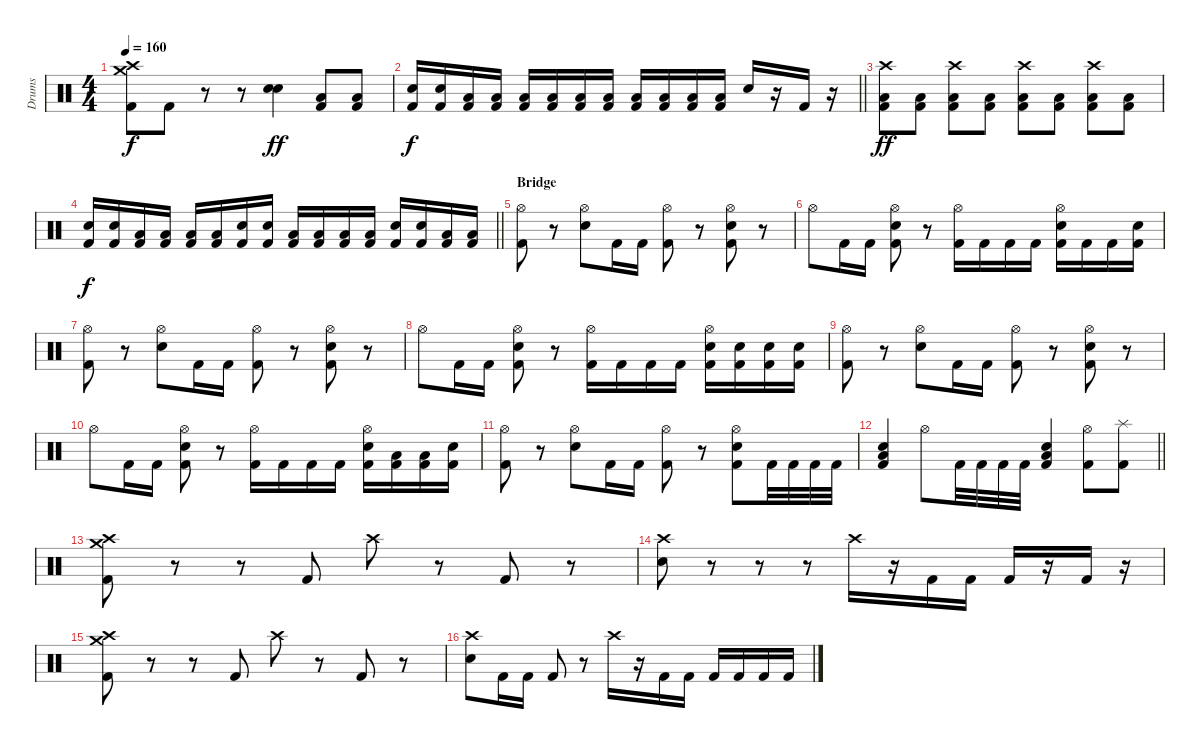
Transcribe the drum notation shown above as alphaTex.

\track ("Drums" "Drums") {instrument percussion}
\staff {score}
\articulation defaults
\ts (4 4)
\tempo 160
\clef neutral
\ks c
("Crash high (hit)" "Crash medium (hit)" "Kick (hit) 2").8{dy f} "Kick (hit) 2".8 r.8 r.8 ("Electric Snare (hit)" "Snare (hit) 2").4{dy ff} ("Low Floor Tom (hit)" "Kick (hit) 2").8 ("Low Floor Tom (hit)" "Kick (hit) 2").8 |
\barLineRight lightlight
("Electric Snare (hit)" "Kick (hit) 2").16{dy f} ("Electric Snare (hit)" "Kick (hit) 2").16 ("Low Floor Tom (hit)" "Kick (hit) 2").16 ("Low Floor Tom (hit)" "Kick (hit) 2").16 ("Low Floor Tom (hit)" "Kick (hit) 2").16 ("Low Floor Tom (hit)" "Kick (hit) 2").16 ("Low Tom (hit)" "Kick (hit) 2").16 ("Low Tom (hit)" "Kick (hit) 2").16 ("Low Floor Tom (hit)" "Kick (hit) 2").16 ("Low Floor Tom (hit)" "Kick (hit) 2").16 ("Low Floor Tom (hit)" "Kick (hit) 2").16 ("Low Floor Tom (hit)" "Kick (hit) 2").16 "Electric Snare (hit)".16 r.16 "Kick (hit) 2".16 r.16 |
\section ("" "")
("Crash high (hit)" "Low Floor Tom (hit)" "Kick (hit) 2").8{dy ff} ("Low Floor Tom (hit)" "Kick (hit) 2").8 ("Crash high (hit)" "Low Floor Tom (hit)" "Kick (hit) 2").8 ("Low Floor Tom (hit)" "Kick (hit) 2").8 ("Crash high (hit)" "Low Floor Tom (hit)" "Kick (hit) 2").8 ("Low Floor Tom (hit)" "Kick (hit) 2").8 ("Crash high (hit)" "Low Floor Tom (hit)" "Kick (hit) 2").8 ("Low Floor Tom (hit)" "Kick (hit) 2").8 |
\barLineRight lightlight
("Electric Snare (hit)" "Kick (hit) 2").16{dy f} ("Electric Snare (hit)" "Kick (hit) 2").16 ("Low Floor Tom (hit)" "Kick (hit) 2").16 ("Low Floor Tom (hit)" "Kick (hit) 2").16 ("Low Floor Tom (hit)" "Kick (hit) 2").16 ("Low Floor Tom (hit)" "Kick (hit) 2").16 ("Electric Snare (hit)" "Kick (hit) 2").16 ("Electric Snare (hit)" "Kick (hit) 2").16 ("Low Floor Tom (hit)" "Kick (hit) 2").16 ("Low Floor Tom (hit)" "Kick (hit) 2").16 ("Low Floor Tom (hit)" "Kick (hit) 2").16 ("Low Floor Tom (hit)" "Kick (hit) 2").16 ("Electric Snare (hit)" "Kick (hit) 2").16 ("Electric Snare (hit)" "Kick (hit) 2").16 ("Low Floor Tom (hit)" "Kick (hit) 2").16 ("Low Floor Tom (hit)" "Kick (hit) 2").16 |
\section ("" "Bridge")
("Hi-Hat (open)" "Kick (hit) 2").8 r.8 ("Hi-Hat (open)" "Electric Snare (hit)").8 "Kick (hit) 2".16 "Kick (hit) 2".16 ("Hi-Hat (open)" "Kick (hit) 2").8 r.8 ("Hi-Hat (open)" "Electric Snare (hit)" "Kick (hit) 2").8 r.8 |
"Hi-Hat (open)".8 "Kick (hit) 2".16 "Kick (hit) 2".16 ("Hi-Hat (open)" "Electric Snare (hit)" "Kick (hit) 2").8 r.8 ("Hi-Hat (open)" "Kick (hit) 2").16 "Kick (hit) 2".16 "Kick (hit) 2".16 "Kick (hit) 2".16 ("Hi-Hat (open)" "Electric Snare (hit)" "Kick (hit) 2").16 "Kick (hit) 2".16 "Kick (hit) 2".16 ("Electric Snare (hit)" "Kick (hit) 2").16 |
("Hi-Hat (open)" "Kick (hit) 2").8 r.8 ("Hi-Hat (open)" "Electric Snare (hit)").8 "Kick (hit) 2".16 "Kick (hit) 2".16 ("Hi-Hat (open)" "Kick (hit) 2").8 r.8 ("Hi-Hat (open)" "Electric Snare (hit)" "Kick (hit) 2").8 r.8 |
"Hi-Hat (open)".8 "Kick (hit) 2".16 "Kick (hit) 2".16 ("Hi-Hat (open)" "Electric Snare (hit)" "Kick (hit) 2").8 r.8 ("Hi-Hat (open)" "Kick (hit) 2").16 "Kick (hit) 2".16 "Kick (hit) 2".16 "Kick (hit) 2".16 ("Hi-Hat (open)" "Electric Snare (hit)" "Kick (hit) 2").16 ("Electric Snare (hit)" "Kick (hit) 2").16 ("Electric Snare (hit)" "Kick (hit) 2").16 ("Electric Snare (hit)" "Kick (hit) 2").16 |
("Hi-Hat (open)" "Kick (hit) 2").8 r.8 ("Hi-Hat (open)" "Electric Snare (hit)").8 "Kick (hit) 2".16 "Kick (hit) 2".16 ("Hi-Hat (open)" "Kick (hit) 2").8 r.8 ("Hi-Hat (open)" "Electric Snare (hit)" "Kick (hit) 2").8 r.8 |
"Hi-Hat (open)".8 "Kick (hit) 2".16 "Kick (hit) 2".16 ("Hi-Hat (open)" "Electric Snare (hit)" "Kick (hit) 2").8 r.8 ("Hi-Hat (open)" "Kick (hit) 2").16 "Kick (hit) 2".16 "Kick (hit) 2".16 "Kick (hit) 2".16 ("Hi-Hat (open)" "Electric Snare (hit)" "Kick (hit) 2").16 ("Low Tom (hit)" "Kick (hit) 2").16 ("Low Tom (hit)" "Kick (hit) 2").16 ("Electric Snare (hit)" "Kick (hit) 2").16 |
("Hi-Hat (open)" "Kick (hit) 2").8 r.8 ("Hi-Hat (open)" "Electric Snare (hit)").8 "Kick (hit) 2".16 "Kick (hit) 2".16 ("Hi-Hat (open)" "Kick (hit) 2").8 r.8 ("Hi-Hat (open)" "Electric Snare (hit)" "Kick (hit) 2").8 "Kick (hit) 2".32 "Kick (hit) 2".32 "Kick (hit) 2".32 "Kick (hit) 2".32 |
\barLineRight lightlight
("Electric Snare (hit)" "Low Floor Tom (hit)" "Kick (hit) 2").4 "Hi-Hat (open)".8 "Kick (hit) 2".32 "Kick (hit) 2".32 "Kick (hit) 2".32 "Kick (hit) 2".32 ("Electric Snare (hit)" "Low Floor Tom (hit)" "Kick (hit) 2").4 ("Hi-Hat (open)" "Kick (hit) 2").8 ("Splash (hit)" "Kick (hit) 2").8 |
\section ("" "")
("Crash high (hit)" "Crash medium (hit)" "Kick (hit) 2").8 r.8 r.8 "Kick (hit) 2".8 "Crash high (hit)".8 r.8 "Kick (hit) 2".8 r.8 |
("Crash high (hit)" "Electric Snare (hit)").8 r.8 r.8 r.8 "Crash high (hit)".16 r.16 "Kick (hit) 2".16 "Kick (hit) 2".16 "Kick (hit) 2".16 r.16 "Kick (hit) 2".16 r.16 |
("Crash high (hit)" "Crash medium (hit)" "Kick (hit) 2").8 r.8 r.8 "Kick (hit) 2".8 "Crash high (hit)".8 r.8 "Kick (hit) 2".8 r.8 |
("Crash high (hit)" "Electric Snare (hit)").8 "Kick (hit) 2".16 "Kick (hit) 2".16 "Kick (hit) 2".8 r.8 "Crash high (hit)".16 r.16 "Kick (hit) 2".16 "Kick (hit) 2".16 "Kick (hit) 2".16 "Kick (hit) 2".16 "Kick (hit) 2".16 "Kick (hit) 2".16
